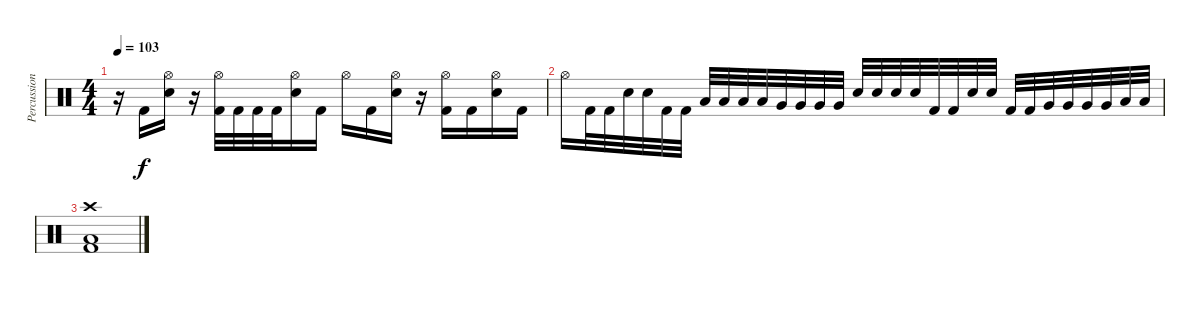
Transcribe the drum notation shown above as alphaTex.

\track ("Percussion" "Percussion") {instrument percussion}
\staff {score}
\articulation defaults
\ts (4 4)
\tempo 103
\clef neutral
\ks c
r.16{dy f} "Kick (hit) 2".16 ("Hi-Hat (open)" "Snare (hit) 2").16 r.16 ("Hi-Hat (open)" "Kick (hit) 2").32 "Kick (hit) 2".32 "Kick (hit) 2".32 "Kick (hit) 2".32 ("Hi-Hat (open)" "Snare (hit) 2").16 "Kick (hit) 2".16 "Hi-Hat (open)".16 "Kick (hit) 2".16 ("Hi-Hat (open)" "Snare (hit) 2").16 r.16 ("Hi-Hat (open)" "Kick (hit) 2").16 "Kick (hit) 2".16 ("Hi-Hat (open)" "Snare (hit) 2").16 "Kick (hit) 2".16 |
"Hi-Hat (open)".16 "Kick (hit) 2".32 "Kick (hit) 2".32 "Snare (hit) 2".32 "Snare (hit) 2".32 "Kick (hit) 2".32 "Kick (hit) 2".32 "Low Tom (hit)".32 "Low Tom (hit)".32 "Low Tom (hit)".32 "Low Tom (hit)".32 "Very Low Tom (hit)".32 "Very Low Tom (hit)".32 "Very Low Tom (hit)".32 "Very Low Tom (hit)".32 "Snare (hit) 2".32 "Snare (hit) 2".32 "Snare (hit) 2".32 "Snare (hit) 2".32 "Kick (hit) 2".32 "Kick (hit) 2".32 "Snare (hit) 2".32 "Snare (hit) 2".32 "Kick (hit) 2".32 "Kick (hit) 2".32 "Very Low Tom (hit)".32 "Very Low Tom (hit)".32 "Very Low Tom (hit)".32 "Very Low Tom (hit)".32 "Low Floor Tom (hit)".32 "Low Floor Tom (hit)".32 |
("Crash high (hit)" "Low Floor Tom (hit)" "Kick (hit) 2").1
